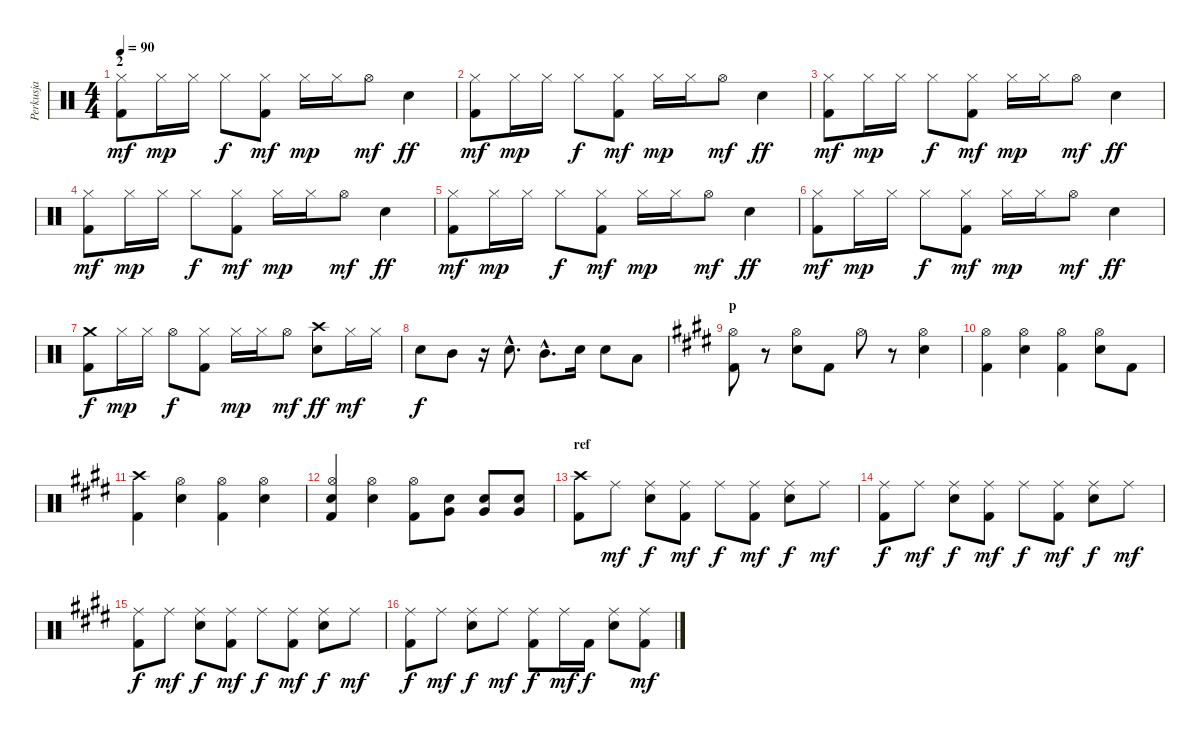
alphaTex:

\track ("Perkusja" "Perkusja") {instrument percussion}
\staff {score}
\articulation defaults
\ts (4 4)
\section ("" "2")
\tempo 90
\clef neutral
\ks c
("Hi-Hat (closed)" "Kick (hit) 2").8{dy mf} "Hi-Hat (closed)".16{dy mp} "Hi-Hat (closed)".16 "Hi-Hat (closed)".8{dy f} ("Hi-Hat (closed)" "Kick (hit) 2").8{dy mf} "Hi-Hat (closed)".16{dy mp} "Hi-Hat (closed)".16 "Hi-Hat (open)".8{dy mf} "Snare (hit) 2".4{dy ff} |
("Hi-Hat (closed)" "Kick (hit) 2").8{dy mf} "Hi-Hat (closed)".16{dy mp} "Hi-Hat (closed)".16 "Hi-Hat (closed)".8{dy f} ("Hi-Hat (closed)" "Kick (hit) 2").8{dy mf} "Hi-Hat (closed)".16{dy mp} "Hi-Hat (closed)".16 "Hi-Hat (open)".8{dy mf} "Snare (hit) 2".4{dy ff} |
("Hi-Hat (closed)" "Kick (hit) 2").8{dy mf} "Hi-Hat (closed)".16{dy mp} "Hi-Hat (closed)".16 "Hi-Hat (closed)".8{dy f} ("Hi-Hat (closed)" "Kick (hit) 2").8{dy mf} "Hi-Hat (closed)".16{dy mp} "Hi-Hat (closed)".16 "Hi-Hat (open)".8{dy mf} "Snare (hit) 2".4{dy ff} |
("Hi-Hat (closed)" "Kick (hit) 2").8{dy mf} "Hi-Hat (closed)".16{dy mp} "Hi-Hat (closed)".16 "Hi-Hat (closed)".8{dy f} ("Hi-Hat (closed)" "Kick (hit) 2").8{dy mf} "Hi-Hat (closed)".16{dy mp} "Hi-Hat (closed)".16 "Hi-Hat (open)".8{dy mf} "Snare (hit) 2".4{dy ff} |
("Hi-Hat (closed)" "Kick (hit) 2").8{dy mf} "Hi-Hat (closed)".16{dy mp} "Hi-Hat (closed)".16 "Hi-Hat (closed)".8{dy f} ("Hi-Hat (closed)" "Kick (hit) 2").8{dy mf} "Hi-Hat (closed)".16{dy mp} "Hi-Hat (closed)".16 "Hi-Hat (open)".8{dy mf} "Snare (hit) 2".4{dy ff} |
("Hi-Hat (closed)" "Kick (hit) 2").8{dy mf} "Hi-Hat (closed)".16{dy mp} "Hi-Hat (closed)".16 "Hi-Hat (closed)".8{dy f} ("Hi-Hat (closed)" "Kick (hit) 2").8{dy mf} "Hi-Hat (closed)".16{dy mp} "Hi-Hat (closed)".16 "Hi-Hat (open)".8{dy mf} "Snare (hit) 2".4{dy ff} |
("Crash medium (hit)" "Kick (hit) 2").8{dy f} "Hi-Hat (closed)".16{dy mp} "Hi-Hat (closed)".16 "Hi-Hat (open)".8{dy f} ("Hi-Hat (closed)" "Kick (hit) 2").8 "Hi-Hat (closed)".16{dy mp} "Hi-Hat (closed)".16 "Hi-Hat (open)".8{dy mf} ("Crash high (hit)" "Snare (hit) 2").8{dy ff} "Hi-Hat (closed)".16{dy mf} "Hi-Hat (closed)".16 |
"Snare (hit) 2".8{dy f} "Mid Tom (hit)".8 r.16 "Snare (hit) 2"{hac}.8{d} "Mid Tom (hit)"{hac}.8{d} "Snare (hit) 2".16 "Snare (hit) 2".8 "Low Tom (hit)".8 |
\section ("" "p")
\ks e
("Hi-Hat (open)" "Kick (hit) 2").8 r.8 ("Hi-Hat (open)" "Snare (hit) 2").8 "Kick (hit) 2".8 "Hi-Hat (open)".8 r.8 ("Hi-Hat (open)" "Snare (hit) 2").4 |
("Hi-Hat (open)" "Kick (hit) 2").4 ("Hi-Hat (open)" "Snare (hit) 2").4 ("Hi-Hat (open)" "Kick (hit) 2").4 ("Hi-Hat (open)" "Snare (hit) 2").8 "Kick (hit) 2".8 |
("Crash high (hit)" "Kick (hit) 2").4 ("Hi-Hat (open)" "Snare (hit) 2").4 ("Hi-Hat (open)" "Kick (hit) 2").4 ("Hi-Hat (open)" "Snare (hit) 2").4 |
("Hi-Hat (open)" "Snare (hit)" "Kick (hit) 2").4 ("Hi-Hat (open)" "Snare (hit) 2").4 ("Hi-Hat (open)" "Kick (hit) 2").8 ("Snare (hit) 2" "Very Low Tom (hit)").8 ("Snare (hit) 2" "Very Low Tom (hit)").8 ("Snare (hit) 2" "Very Low Tom (hit)").8 |
\section ("" "ref")
("Crash high (hit)" "Kick (hit) 2").8 "Ride (middle)".8{dy mf} ("Ride (middle)" "Snare (hit) 2").8{dy f} ("Ride (middle)" "Kick (hit) 2").8{dy mf} "Ride (middle)".8{dy f} ("Ride (middle)" "Kick (hit) 2").8{dy mf} ("Ride (middle)" "Snare (hit) 2").8{dy f} "Ride (middle)".8{dy mf} |
("Ride (middle)" "Kick (hit) 2").8{dy f} "Ride (middle)".8{dy mf} ("Ride (middle)" "Snare (hit) 2").8{dy f} ("Ride (middle)" "Kick (hit) 2").8{dy mf} "Ride (middle)".8{dy f} ("Ride (middle)" "Kick (hit) 2").8{dy mf} ("Ride (middle)" "Snare (hit) 2").8{dy f} "Ride (middle)".8{dy mf} |
("Ride (middle)" "Kick (hit) 2").8{dy f} "Ride (middle)".8{dy mf} ("Ride (middle)" "Snare (hit) 2").8{dy f} ("Ride (middle)" "Kick (hit) 2").8{dy mf} "Ride (middle)".8{dy f} ("Ride (middle)" "Kick (hit) 2").8{dy mf} ("Ride (middle)" "Snare (hit) 2").8{dy f} "Ride (middle)".8{dy mf} |
("Ride (middle)" "Kick (hit) 2").8{dy f} "Ride (middle)".8{dy mf} ("Ride (middle)" "Snare (hit) 2").8{dy f} "Ride (middle)".8{dy mf} ("Ride (middle)" "Kick (hit) 2").8{dy f} "Ride (middle)".16{dy mf} "Kick (hit) 2".16{dy f} ("Ride (middle)" "Snare (hit) 2").8 ("Ride (middle)" "Kick (hit) 2").8{dy mf}
